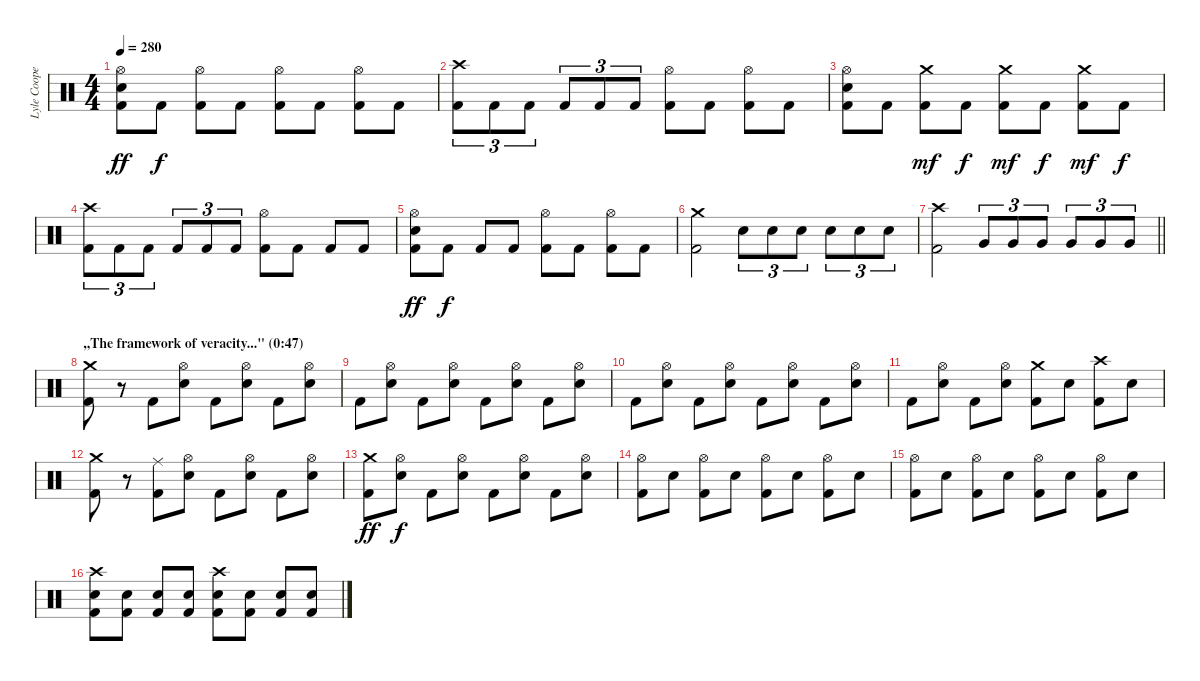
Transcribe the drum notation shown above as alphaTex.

\track ("Lyle Cooper [Drums]" "Lyle Coope") {instrument percussion}
\staff {score}
\articulation defaults
\ts (4 4)
\tempo 280
\clef neutral
\ks c
("Hi-Hat (open)" "Electric Snare (hit)" "Kick (hit) 2").8{dy ff} "Kick (hit) 2".8{dy f} ("Hi-Hat (open)" "Kick (hit) 2").8 "Kick (hit) 2".8 ("Hi-Hat (open)" "Kick (hit) 2").8 "Kick (hit) 2".8 ("Hi-Hat (open)" "Kick (hit) 2").8 "Kick (hit) 2".8 |
("Crash high (hit)" "Kick (hit) 2").8{tu (3 2)} "Kick (hit) 2".8{tu (3 2)} "Kick (hit) 2".8{tu (3 2)} "Kick (hit) 2".8{tu (3 2)} "Kick (hit) 2".8{tu (3 2)} "Kick (hit) 2".8{tu (3 2)} ("Hi-Hat (open)" "Kick (hit) 2").8 "Kick (hit) 2".8 ("Hi-Hat (open)" "Kick (hit) 2").8 "Kick (hit) 2".8 |
("Hi-Hat (open)" "Electric Snare (hit)" "Kick (hit) 2").8 "Kick (hit) 2".8 ("Crash medium (hit)" "Kick (hit) 2").8{dy mf} "Kick (hit) 2".8{dy f} ("Crash medium (hit)" "Kick (hit) 2").8{dy mf} "Kick (hit) 2".8{dy f} ("Crash medium (hit)" "Kick (hit) 2").8{dy mf} "Kick (hit) 2".8{dy f} |
("Crash high (hit)" "Kick (hit) 2").8{tu (3 2)} "Kick (hit) 2".8{tu (3 2)} "Kick (hit) 2".8{tu (3 2)} "Kick (hit) 2".8{tu (3 2)} "Kick (hit) 2".8{tu (3 2)} "Kick (hit) 2".8{tu (3 2)} ("Hi-Hat (open)" "Kick (hit) 2").8 "Kick (hit) 2".8 "Kick (hit) 2".8 "Kick (hit) 2".8 |
("Hi-Hat (open)" "Electric Snare (hit)" "Kick (hit) 2").8{dy ff} "Kick (hit) 2".8{dy f} "Kick (hit) 2".8 "Kick (hit) 2".8 ("Hi-Hat (open)" "Kick (hit) 2").8 "Kick (hit) 2".8 ("Hi-Hat (open)" "Kick (hit) 2").8 "Kick (hit) 2".8 |
("Crash medium (hit)" "Kick (hit) 2").2 "Electric Snare (hit)".8{tu (3 2)} "Electric Snare (hit)".8{tu (3 2)} "Electric Snare (hit)".8{tu (3 2)} "Electric Snare (hit)".8{tu (3 2)} "Electric Snare (hit)".8{tu (3 2)} "Electric Snare (hit)".8{tu (3 2)} |
\barLineRight lightlight
("Crash high (hit)" "Kick (hit) 2").2 "Very Low Tom (hit)".8{tu (3 2)} "Very Low Tom (hit)".8{tu (3 2)} "Very Low Tom (hit)".8{tu (3 2)} "Very Low Tom (hit)".8{tu (3 2)} "Very Low Tom (hit)".8{tu (3 2)} "Very Low Tom (hit)".8{tu (3 2)} |
\section ("" ",,The framework of veracity...\" (0:47)")
("Crash medium (hit)" "Kick (hit) 2").8 r.8 "Kick (hit) 2".8 ("Hi-Hat (open)" "Electric Snare (hit)").8 "Kick (hit) 2".8 ("Hi-Hat (open)" "Electric Snare (hit)").8 "Kick (hit) 2".8 ("Hi-Hat (open)" "Electric Snare (hit)").8 |
"Kick (hit) 2".8 ("Hi-Hat (open)" "Electric Snare (hit)").8 "Kick (hit) 2".8 ("Hi-Hat (open)" "Electric Snare (hit)").8 "Kick (hit) 2".8 ("Hi-Hat (open)" "Electric Snare (hit)").8 "Kick (hit) 2".8 ("Hi-Hat (open)" "Electric Snare (hit)").8 |
"Kick (hit) 2".8 ("Hi-Hat (open)" "Electric Snare (hit)").8 "Kick (hit) 2".8 ("Hi-Hat (open)" "Electric Snare (hit)").8 "Kick (hit) 2".8 ("Hi-Hat (open)" "Electric Snare (hit)").8 "Kick (hit) 2".8 ("Hi-Hat (open)" "Electric Snare (hit)").8 |
"Kick (hit) 2".8 ("Hi-Hat (open)" "Electric Snare (hit)").8 "Kick (hit) 2".8 ("Hi-Hat (open)" "Electric Snare (hit)").8 ("Crash medium (hit)" "Kick (hit) 2").8 "Electric Snare (hit)".8 ("Crash high (hit)" "Kick (hit) 2").8 "Electric Snare (hit)".8 |
("Crash medium (hit)" "Kick (hit) 2").8 r.8 ("Ride (middle)" "Kick (hit) 2").8 ("Hi-Hat (open)" "Electric Snare (hit)").8 "Kick (hit) 2".8 ("Hi-Hat (open)" "Electric Snare (hit)").8 "Kick (hit) 2".8 ("Hi-Hat (open)" "Electric Snare (hit)").8 |
("Crash medium (hit)" "Kick (hit) 2").8{dy ff} ("Hi-Hat (open)" "Electric Snare (hit)").8{dy f} "Kick (hit) 2".8 ("Hi-Hat (open)" "Electric Snare (hit)").8 "Kick (hit) 2".8 ("Hi-Hat (open)" "Electric Snare (hit)").8 "Kick (hit) 2".8 ("Hi-Hat (open)" "Electric Snare (hit)").8 |
("Hi-Hat (open)" "Kick (hit) 2").8 "Electric Snare (hit)".8 ("Hi-Hat (open)" "Kick (hit) 2").8 "Electric Snare (hit)".8 ("Hi-Hat (open)" "Kick (hit) 2").8 "Electric Snare (hit)".8 ("Hi-Hat (open)" "Kick (hit) 2").8 "Electric Snare (hit)".8 |
("Hi-Hat (open)" "Kick (hit) 2").8 "Electric Snare (hit)".8 ("Hi-Hat (open)" "Kick (hit) 2").8 "Electric Snare (hit)".8 ("Hi-Hat (open)" "Kick (hit) 2").8 "Electric Snare (hit)".8 ("Hi-Hat (open)" "Kick (hit) 2").8 "Electric Snare (hit)".8 |
("Crash high (hit)" "Electric Snare (hit)" "Kick (hit) 2").8 ("Electric Snare (hit)" "Kick (hit) 2").8 ("Electric Snare (hit)" "Kick (hit) 2").8 ("Electric Snare (hit)" "Kick (hit) 2").8 ("Crash high (hit)" "Electric Snare (hit)" "Kick (hit) 2").8 ("Electric Snare (hit)" "Kick (hit) 2").8 ("Electric Snare (hit)" "Kick (hit) 2").8 ("Electric Snare (hit)" "Kick (hit) 2").8
